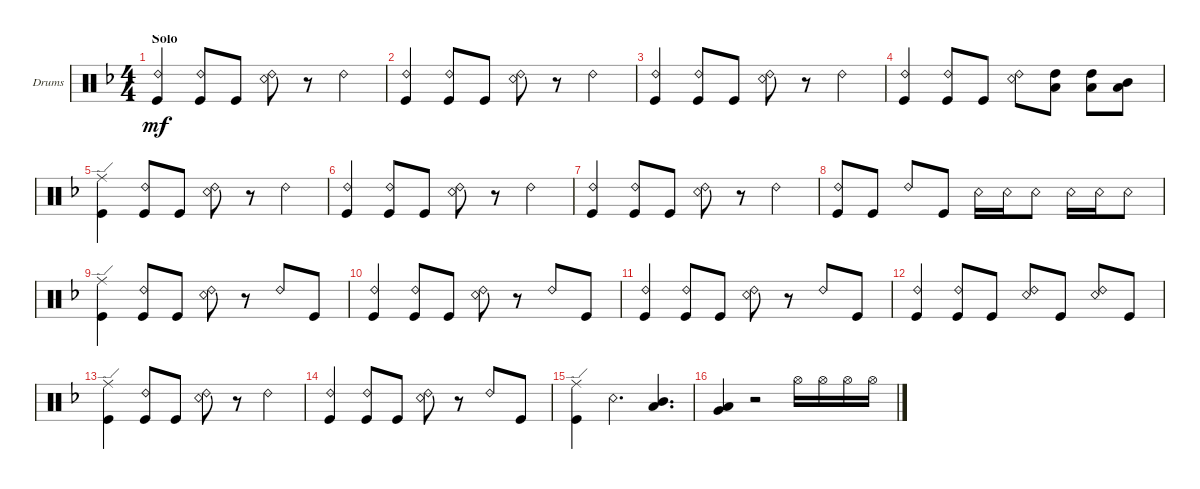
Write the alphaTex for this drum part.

\bracketExtendMode groupsimilarinstruments
\firstSystemTrackNameOrientation horizontal
\otherSystemsTrackNameOrientation horizontal
\track ("Drumkit" "Drums") {instrument percussion}
\staff {score}
\articulation defaults
\ts (4 4)
\section ("" "Solo")
\tempo (125 hide)
\clef neutral
\scale
0.333333
\ks dminor
("Ride (bell) 2" "Kick (hit)").4{dy mf} ("Ride (bell) 2" "Kick (hit)").8 "Kick (hit)".8 ("Snare (rim shot)" "Ride (bell) 2").8 r.8 "Ride (bell) 2".4 |
\scale
0.333333 ("Ride (bell) 2" "Kick (hit)").4 ("Ride (bell) 2" "Kick (hit)").8 "Kick (hit)".8 ("Snare (rim shot)" "Ride (bell) 2").8 r.8 "Ride (bell) 2".4 |
\scale
0.333333 ("Ride (bell) 2" "Kick (hit)").4 ("Ride (bell) 2" "Kick (hit)").8 "Kick (hit)".8 ("Snare (rim shot)" "Ride (bell) 2").8 r.8 "Ride (bell) 2".4 |
\scale
0.333333 ("Ride (bell) 2" "Kick (hit)").4 ("Ride (bell) 2" "Kick (hit)").8 "Kick (hit)".8 ("Snare (rim shot)" "Ride (bell) 2").8 ("Low Tom (hit)" "High Tom (hit)").8 ("Low Tom (hit)" "High Tom (hit)").8 ("Mid Tom (hit)" "Low Tom (hit)").8 |
\scale
0.333333 ("Ride (edge)" "Kick (hit)").4 ("Ride (bell) 2" "Kick (hit)").8 "Kick (hit)".8 ("Snare (rim shot)" "Ride (bell) 2").8 r.8 "Ride (bell) 2".4 |
\scale
0.333333 ("Ride (bell) 2" "Kick (hit)").4 ("Ride (bell) 2" "Kick (hit)").8 "Kick (hit)".8 ("Snare (rim shot)" "Ride (bell) 2").8 r.8 "Ride (bell) 2".4 |
\scale
0.333333 ("Ride (bell) 2" "Kick (hit)").4 ("Ride (bell) 2" "Kick (hit)").8 "Kick (hit)".8 ("Snare (rim shot)" "Ride (bell) 2").8 r.8 "Ride (bell) 2".4 |
\scale
0.333333 ("Ride (bell) 2" "Kick (hit)").8 "Kick (hit)".8 "Ride (bell) 2".8 "Kick (hit)".8 "Snare (rim shot)".16 "Snare (rim shot)".16 "Snare (rim shot)".8 "Snare (rim shot)".16 "Snare (rim shot)".16 "Snare (rim shot)".8 |
\scale
0.333333 ("Ride (edge)" "Kick (hit)").4 ("Ride (bell) 2" "Kick (hit)").8 "Kick (hit)".8 ("Snare (rim shot)" "Ride (bell) 2").8 r.8 "Ride (bell) 2".8 "Kick (hit)".8 |
\scale
0.333333 ("Ride (bell) 2" "Kick (hit)").4 ("Ride (bell) 2" "Kick (hit)").8 "Kick (hit)".8 ("Snare (rim shot)" "Ride (bell) 2").8 r.8 "Ride (bell) 2".8 "Kick (hit)".8 |
\scale
0.333333 ("Ride (bell) 2" "Kick (hit)").4 ("Ride (bell) 2" "Kick (hit)").8 "Kick (hit)".8 ("Snare (rim shot)" "Ride (bell) 2").8 r.8 "Ride (bell) 2".8 "Kick (hit)".8 |
\scale
0.333333 ("Ride (bell) 2" "Kick (hit)").4 ("Ride (bell) 2" "Kick (hit)").8 "Kick (hit)".8 ("Snare (rim shot)" "Ride (bell) 2").8 "Kick (hit)".8 ("Snare (rim shot)" "Ride (bell) 2").8 "Kick (hit)".8 |
\scale
0.333333 ("Ride (edge)" "Kick (hit)").4 ("Ride (bell) 2" "Kick (hit)").8 "Kick (hit)".8 ("Snare (rim shot)" "Ride (bell) 2").8 r.8 "Ride (bell) 2".4 |
\scale
0.333333 ("Ride (bell) 2" "Kick (hit)").4 ("Ride (bell) 2" "Kick (hit)").8 "Kick (hit)".8 ("Snare (rim shot)" "Ride (bell) 2").8 r.8 "Ride (bell) 2".8 "Kick (hit)".8 |
\scale
0.333333 ("Ride (edge)" "Kick (hit)").4 "Snare (rim shot)".4{d} ("Mid Tom (hit)" "Low Tom (hit)").4{d} |
\scale
0.333333 ("Very Low Tom (hit)" "Low Tom (hit)").4 r.2 "Hi-Hat (open)".16 "Hi-Hat (open)".16 "Hi-Hat (open)".16 "Hi-Hat (open)".16
